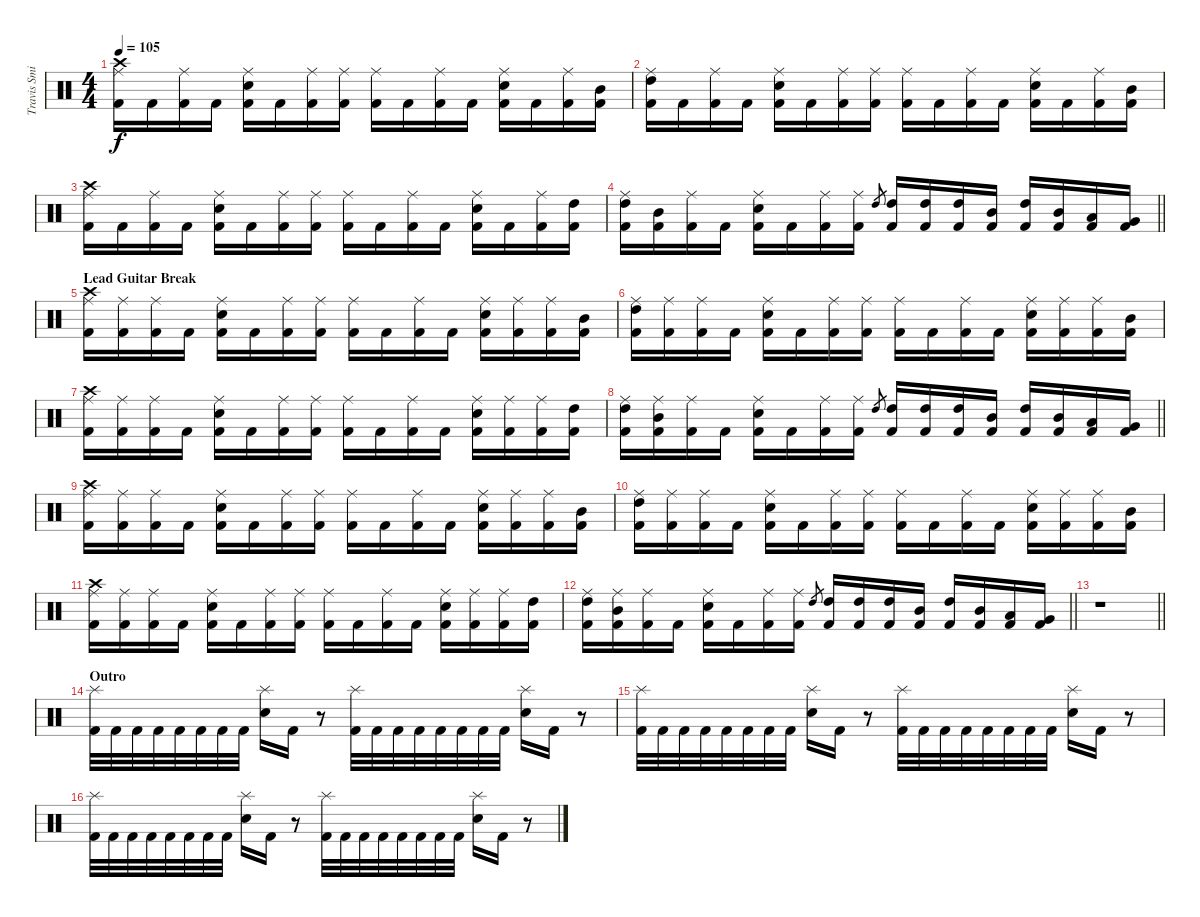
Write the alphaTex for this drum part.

\track ("Travis Smith" "Travis Smi") {instrument percussion}
\staff {score}
\articulation defaults
\ts (4 4)
\tempo 105
\clef neutral
\ks c
("Ride (middle)" "Crash high (hit)" "Kick (hit) 2").16{dy f} "Kick (hit) 2".16 ("Ride (middle)" "Kick (hit) 2").16 "Kick (hit) 2".16 ("Ride (middle)" "Snare (hit) 2" "Kick (hit) 2").16 "Kick (hit) 2".16 ("Ride (middle)" "Kick (hit) 2").16 ("Ride (middle)" "Kick (hit) 2").16 ("Ride (middle)" "Kick (hit) 2").16 "Kick (hit) 2".16 ("Ride (middle)" "Kick (hit) 2").16 "Kick (hit) 2".16 ("Ride (middle)" "Snare (hit) 2" "Kick (hit) 2").16 "Kick (hit) 2".16 ("Ride (middle)" "Kick (hit) 2").16 ("Mid Tom (hit)" "Kick (hit) 2").16 |
("Ride (middle)" "High Tom (hit)" "Kick (hit) 2").16 "Kick (hit) 2".16 ("Ride (middle)" "Kick (hit) 2").16 "Kick (hit) 2".16 ("Ride (middle)" "Snare (hit) 2" "Kick (hit) 2").16 "Kick (hit) 2".16 ("Ride (middle)" "Kick (hit) 2").16 ("Ride (middle)" "Kick (hit) 2").16 ("Ride (middle)" "Kick (hit) 2").16 "Kick (hit) 2".16 ("Ride (middle)" "Kick (hit) 2").16 "Kick (hit) 2".16 ("Ride (middle)" "Snare (hit) 2" "Kick (hit) 2").16 "Kick (hit) 2".16 ("Ride (middle)" "Kick (hit) 2").16 ("Mid Tom (hit)" "Kick (hit) 2").16 |
("Ride (middle)" "Crash high (hit)" "Kick (hit) 2").16 "Kick (hit) 2".16 ("Ride (middle)" "Kick (hit) 2").16 "Kick (hit) 2".16 ("Ride (middle)" "Snare (hit) 2" "Kick (hit) 2").16 "Kick (hit) 2".16 ("Ride (middle)" "Kick (hit) 2").16 ("Ride (middle)" "Kick (hit) 2").16 ("Ride (middle)" "Kick (hit) 2").16 "Kick (hit) 2".16 ("Ride (middle)" "Kick (hit) 2").16 "Kick (hit) 2".16 ("Ride (middle)" "Snare (hit) 2" "Kick (hit) 2").16 "Kick (hit) 2".16 ("Ride (middle)" "Kick (hit) 2").16 ("High Tom (hit)" "Kick (hit) 2").16 |
\barLineRight lightlight
("Ride (middle)" "High Tom (hit)" "Kick (hit) 2").16 ("Mid Tom (hit)" "Kick (hit) 2").16 ("Ride (middle)" "Kick (hit) 2").16 "Kick (hit) 2".16 ("Ride (middle)" "Snare (hit) 2" "Kick (hit) 2").16 "Kick (hit) 2".16 ("Ride (middle)" "Kick (hit) 2").16 ("Ride (middle)" "Kick (hit) 2").16 "High Tom (hit)".8{gr} ("High Tom (hit)" "Kick (hit) 2").16 ("High Tom (hit)" "Kick (hit) 2").16 ("High Tom (hit)" "Kick (hit) 2").16 ("Mid Tom (hit)" "Kick (hit) 2").16 ("High Tom (hit)" "Kick (hit) 2").16 ("Mid Tom (hit)" "Kick (hit) 2").16 ("Low Tom (hit)" "Kick (hit) 2").16 ("Very Low Tom (hit)" "Kick (hit) 2").16 |
\section ("" "Lead Guitar Break")
("Ride (middle)" "Crash high (hit)" "Kick (hit) 2").16 ("Ride (middle)" "Kick (hit) 2").16 ("Ride (middle)" "Kick (hit) 2").16 "Kick (hit) 2".16 ("Ride (middle)" "Snare (hit) 2" "Kick (hit) 2").16 "Kick (hit) 2".16 ("Ride (middle)" "Kick (hit) 2").16 ("Ride (middle)" "Kick (hit) 2").16 ("Ride (middle)" "Kick (hit) 2").16 "Kick (hit) 2".16 ("Ride (middle)" "Kick (hit) 2").16 "Kick (hit) 2".16 ("Ride (middle)" "Snare (hit) 2" "Kick (hit) 2").16 ("Ride (middle)" "Kick (hit) 2").16 ("Ride (middle)" "Kick (hit) 2").16 ("Mid Tom (hit)" "Kick (hit) 2").16 |
("Ride (middle)" "High Tom (hit)" "Kick (hit) 2").16 ("Ride (middle)" "Kick (hit) 2").16 ("Ride (middle)" "Kick (hit) 2").16 "Kick (hit) 2".16 ("Ride (middle)" "Snare (hit) 2" "Kick (hit) 2").16 "Kick (hit) 2".16 ("Ride (middle)" "Kick (hit) 2").16 ("Ride (middle)" "Kick (hit) 2").16 ("Ride (middle)" "Kick (hit) 2").16 "Kick (hit) 2".16 ("Ride (middle)" "Kick (hit) 2").16 "Kick (hit) 2".16 ("Ride (middle)" "Snare (hit) 2" "Kick (hit) 2").16 ("Ride (middle)" "Kick (hit) 2").16 ("Ride (middle)" "Kick (hit) 2").16 ("Mid Tom (hit)" "Kick (hit) 2").16 |
("Ride (middle)" "Crash high (hit)" "Kick (hit) 2").16 ("Ride (middle)" "Kick (hit) 2").16 ("Ride (middle)" "Kick (hit) 2").16 "Kick (hit) 2".16 ("Ride (middle)" "Snare (hit) 2" "Kick (hit) 2").16 "Kick (hit) 2".16 ("Ride (middle)" "Kick (hit) 2").16 ("Ride (middle)" "Kick (hit) 2").16 ("Ride (middle)" "Kick (hit) 2").16 "Kick (hit) 2".16 ("Ride (middle)" "Kick (hit) 2").16 "Kick (hit) 2".16 ("Ride (middle)" "Snare (hit) 2" "Kick (hit) 2").16 ("Ride (middle)" "Kick (hit) 2").16 ("Ride (middle)" "Kick (hit) 2").16 ("High Tom (hit)" "Kick (hit) 2").16 |
\barLineRight lightlight
("Ride (middle)" "High Tom (hit)" "Kick (hit) 2").16 ("Ride (middle)" "Mid Tom (hit)" "Kick (hit) 2").16 ("Ride (middle)" "Kick (hit) 2").16 "Kick (hit) 2".16 ("Ride (middle)" "Snare (hit) 2" "Kick (hit) 2").16 "Kick (hit) 2".16 ("Ride (middle)" "Kick (hit) 2").16 ("Ride (middle)" "Kick (hit) 2").16 "High Tom (hit)".8{gr} ("High Tom (hit)" "Kick (hit) 2").16 ("High Tom (hit)" "Kick (hit) 2").16 ("High Tom (hit)" "Kick (hit) 2").16 ("Mid Tom (hit)" "Kick (hit) 2").16 ("High Tom (hit)" "Kick (hit) 2").16 ("Mid Tom (hit)" "Kick (hit) 2").16 ("Low Tom (hit)" "Kick (hit) 2").16 ("Very Low Tom (hit)" "Kick (hit) 2").16 |
("Ride (middle)" "Crash high (hit)" "Kick (hit) 2").16 ("Ride (middle)" "Kick (hit) 2").16 ("Ride (middle)" "Kick (hit) 2").16 "Kick (hit) 2".16 ("Ride (middle)" "Snare (hit) 2" "Kick (hit) 2").16 "Kick (hit) 2".16 ("Ride (middle)" "Kick (hit) 2").16 ("Ride (middle)" "Kick (hit) 2").16 ("Ride (middle)" "Kick (hit) 2").16 "Kick (hit) 2".16 ("Ride (middle)" "Kick (hit) 2").16 "Kick (hit) 2".16 ("Ride (middle)" "Snare (hit) 2" "Kick (hit) 2").16 ("Ride (middle)" "Kick (hit) 2").16 ("Ride (middle)" "Kick (hit) 2").16 ("Mid Tom (hit)" "Kick (hit) 2").16 |
("Ride (middle)" "High Tom (hit)" "Kick (hit) 2").16 ("Ride (middle)" "Kick (hit) 2").16 ("Ride (middle)" "Kick (hit) 2").16 "Kick (hit) 2".16 ("Ride (middle)" "Snare (hit) 2" "Kick (hit) 2").16 "Kick (hit) 2".16 ("Ride (middle)" "Kick (hit) 2").16 ("Ride (middle)" "Kick (hit) 2").16 ("Ride (middle)" "Kick (hit) 2").16 "Kick (hit) 2".16 ("Ride (middle)" "Kick (hit) 2").16 "Kick (hit) 2".16 ("Ride (middle)" "Snare (hit) 2" "Kick (hit) 2").16 ("Ride (middle)" "Kick (hit) 2").16 ("Ride (middle)" "Kick (hit) 2").16 ("Mid Tom (hit)" "Kick (hit) 2").16 |
("Ride (middle)" "Crash high (hit)" "Kick (hit) 2").16 ("Ride (middle)" "Kick (hit) 2").16 ("Ride (middle)" "Kick (hit) 2").16 "Kick (hit) 2".16 ("Ride (middle)" "Snare (hit) 2" "Kick (hit) 2").16 "Kick (hit) 2".16 ("Ride (middle)" "Kick (hit) 2").16 ("Ride (middle)" "Kick (hit) 2").16 ("Ride (middle)" "Kick (hit) 2").16 "Kick (hit) 2".16 ("Ride (middle)" "Kick (hit) 2").16 "Kick (hit) 2".16 ("Ride (middle)" "Snare (hit) 2" "Kick (hit) 2").16 ("Ride (middle)" "Kick (hit) 2").16 ("Ride (middle)" "Kick (hit) 2").16 ("High Tom (hit)" "Kick (hit) 2").16 |
\barLineRight lightlight
("Ride (middle)" "High Tom (hit)" "Kick (hit) 2").16 ("Ride (middle)" "Mid Tom (hit)" "Kick (hit) 2").16 ("Ride (middle)" "Kick (hit) 2").16 "Kick (hit) 2".16 ("Ride (middle)" "Snare (hit) 2" "Kick (hit) 2").16 "Kick (hit) 2".16 ("Ride (middle)" "Kick (hit) 2").16 ("Ride (middle)" "Kick (hit) 2").16 "High Tom (hit)".8{gr} ("High Tom (hit)" "Kick (hit) 2").16 ("High Tom (hit)" "Kick (hit) 2").16 ("High Tom (hit)" "Kick (hit) 2").16 ("Mid Tom (hit)" "Kick (hit) 2").16 ("High Tom (hit)" "Kick (hit) 2").16 ("Mid Tom (hit)" "Kick (hit) 2").16 ("Low Tom (hit)" "Kick (hit) 2").16 ("Very Low Tom (hit)" "Kick (hit) 2").16 |
\barLineRight lightlight
r.1 |
\section ("" "Outro")
("Splash (hit)" "Kick (hit) 2").32 "Kick (hit) 2".32 "Kick (hit) 2".32 "Kick (hit) 2".32 "Kick (hit) 2".32 "Kick (hit) 2".32 "Kick (hit) 2".32 "Kick (hit) 2".32 ("Splash (hit)" "Snare (hit) 2").16 "Kick (hit) 2".16 r.8 ("Splash (hit)" "Kick (hit) 2").32 "Kick (hit) 2".32 "Kick (hit) 2".32 "Kick (hit) 2".32 "Kick (hit) 2".32 "Kick (hit) 2".32 "Kick (hit) 2".32 "Kick (hit) 2".32 ("Splash (hit)" "Snare (hit) 2").16 "Kick (hit) 2".16 r.8 |
("Splash (hit)" "Kick (hit) 2").32 "Kick (hit) 2".32 "Kick (hit) 2".32 "Kick (hit) 2".32 "Kick (hit) 2".32 "Kick (hit) 2".32 "Kick (hit) 2".32 "Kick (hit) 2".32 ("Splash (hit)" "Snare (hit) 2").16 "Kick (hit) 2".16 r.8 ("Splash (hit)" "Kick (hit) 2").32 "Kick (hit) 2".32 "Kick (hit) 2".32 "Kick (hit) 2".32 "Kick (hit) 2".32 "Kick (hit) 2".32 "Kick (hit) 2".32 "Kick (hit) 2".32 ("Splash (hit)" "Snare (hit) 2").16 "Kick (hit) 2".16 r.8 |
("Splash (hit)" "Kick (hit) 2").32 "Kick (hit) 2".32 "Kick (hit) 2".32 "Kick (hit) 2".32 "Kick (hit) 2".32 "Kick (hit) 2".32 "Kick (hit) 2".32 "Kick (hit) 2".32 ("Splash (hit)" "Snare (hit) 2").16 "Kick (hit) 2".16 r.8 ("Splash (hit)" "Kick (hit) 2").32 "Kick (hit) 2".32 "Kick (hit) 2".32 "Kick (hit) 2".32 "Kick (hit) 2".32 "Kick (hit) 2".32 "Kick (hit) 2".32 "Kick (hit) 2".32 ("Splash (hit)" "Snare (hit) 2").16 "Kick (hit) 2".16 r.8
